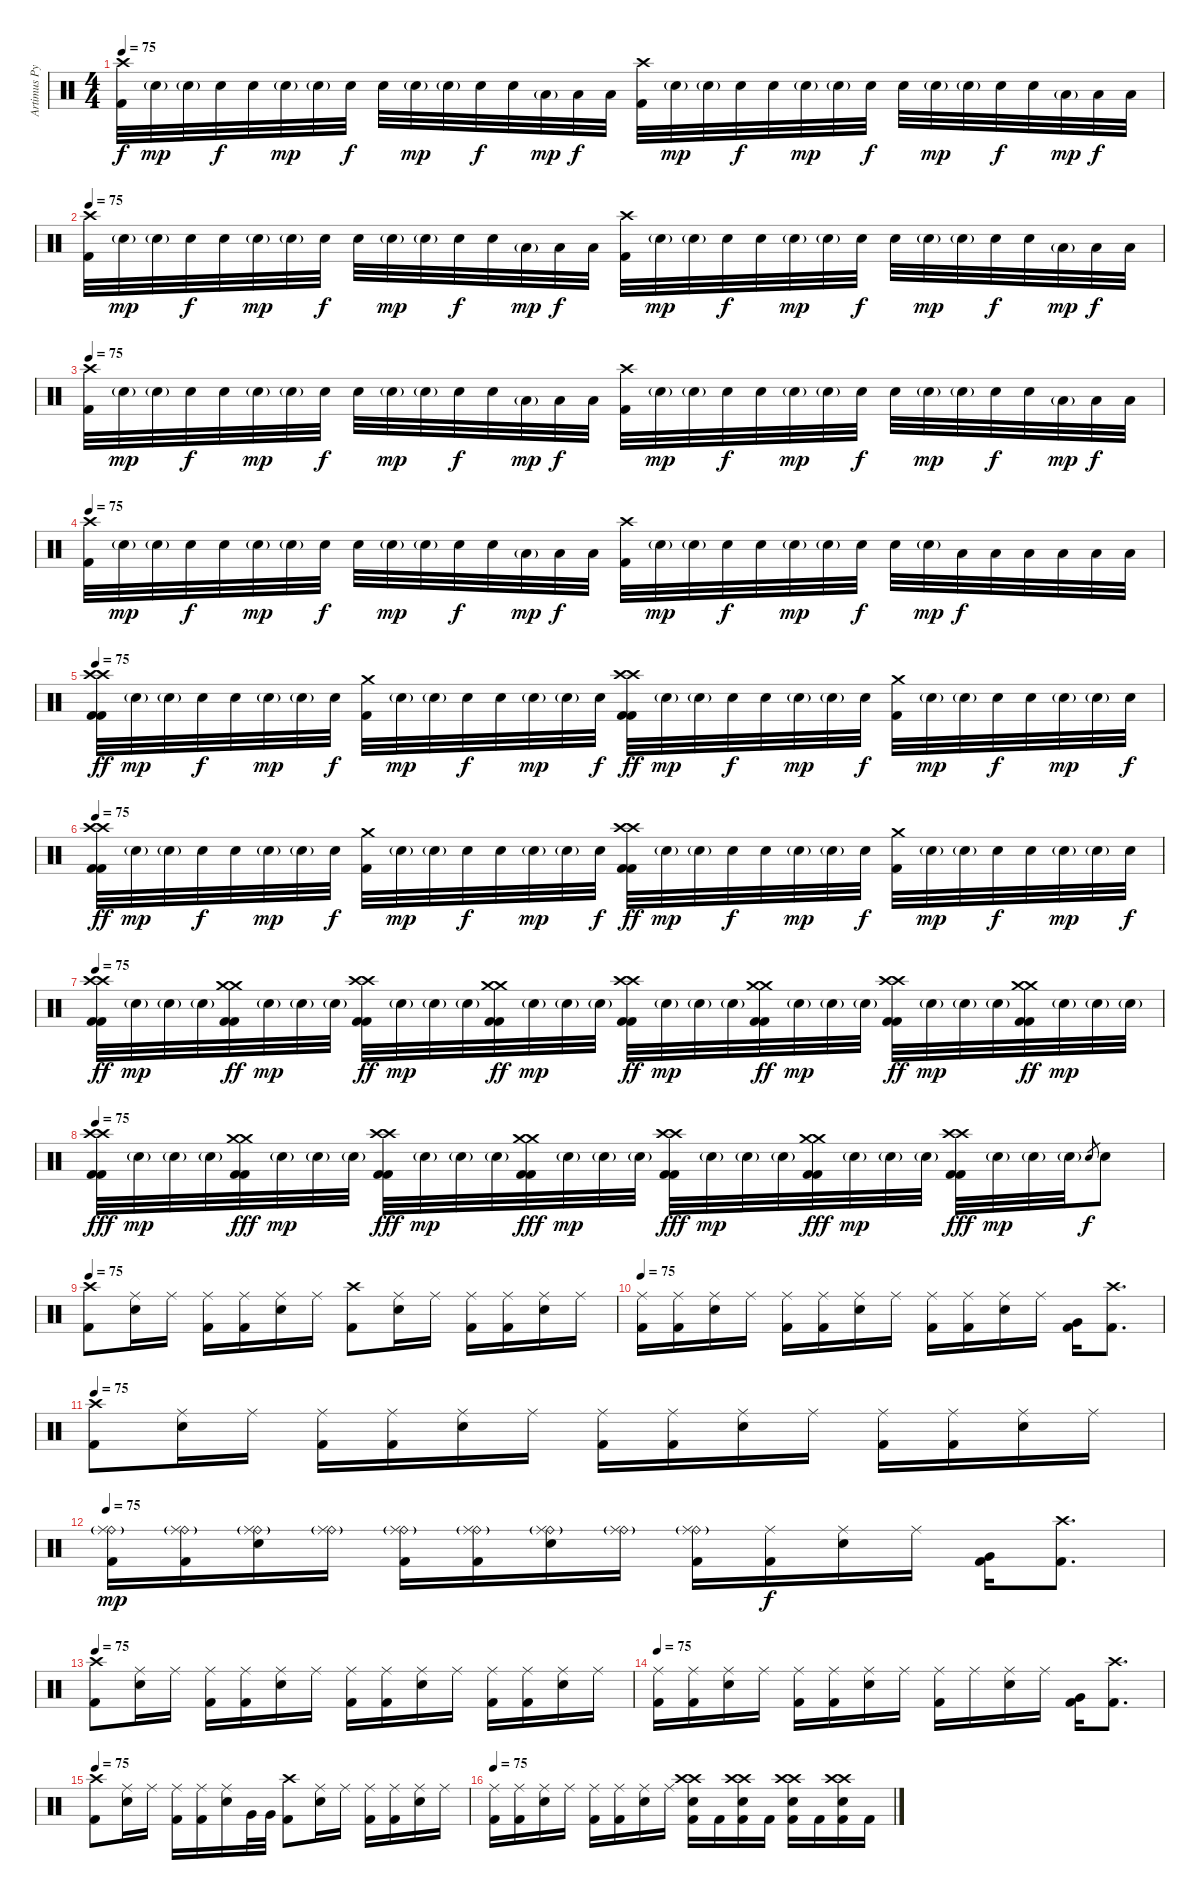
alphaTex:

\track ("Artimus Pyle (drums)" "Artimus Py") {instrument percussion}
\staff {score}
\articulation defaults
\ts (4 4)
\tempo 75
\clef neutral
\ks c
("Crash high (hit)" "Kick (hit) 2").32{dy f} "Electric Snare (hit)"{g}.32{dy mp} "Electric Snare (hit)"{g}.32 "Electric Snare (hit)".32{dy f} "Electric Snare (hit)".32 "Electric Snare (hit)"{g}.32{dy mp} "Electric Snare (hit)"{g}.32 "Electric Snare (hit)".32{dy f} "Electric Snare (hit)".32 "Electric Snare (hit)"{g}.32{dy mp} "Electric Snare (hit)"{g}.32 "Electric Snare (hit)".32{dy f} "Electric Snare (hit)".32 "Low Tom (hit)"{g}.32{dy mp} "Low Tom (hit)".32{dy f} "Low Tom (hit)".32 ("Crash high (hit)" "Kick (hit) 2").32 "Electric Snare (hit)"{g}.32{dy mp} "Electric Snare (hit)"{g}.32 "Electric Snare (hit)".32{dy f} "Electric Snare (hit)".32 "Electric Snare (hit)"{g}.32{dy mp} "Electric Snare (hit)"{g}.32 "Electric Snare (hit)".32{dy f} "Electric Snare (hit)".32 "Electric Snare (hit)"{g}.32{dy mp} "Electric Snare (hit)"{g}.32 "Electric Snare (hit)".32{dy f} "Electric Snare (hit)".32 "Low Tom (hit)"{g}.32{dy mp} "Low Tom (hit)".32{dy f} "Low Tom (hit)".32 |
\tempo 75
("Crash high (hit)" "Kick (hit) 2").32 "Electric Snare (hit)"{g}.32{dy mp} "Electric Snare (hit)"{g}.32 "Electric Snare (hit)".32{dy f} "Electric Snare (hit)".32 "Electric Snare (hit)"{g}.32{dy mp} "Electric Snare (hit)"{g}.32 "Electric Snare (hit)".32{dy f} "Electric Snare (hit)".32 "Electric Snare (hit)"{g}.32{dy mp} "Electric Snare (hit)"{g}.32 "Electric Snare (hit)".32{dy f} "Electric Snare (hit)".32 "Low Tom (hit)"{g}.32{dy mp} "Low Tom (hit)".32{dy f} "Low Tom (hit)".32 ("Crash high (hit)" "Kick (hit) 2").32 "Electric Snare (hit)"{g}.32{dy mp} "Electric Snare (hit)"{g}.32 "Electric Snare (hit)".32{dy f} "Electric Snare (hit)".32 "Electric Snare (hit)"{g}.32{dy mp} "Electric Snare (hit)"{g}.32 "Electric Snare (hit)".32{dy f} "Electric Snare (hit)".32 "Electric Snare (hit)"{g}.32{dy mp} "Electric Snare (hit)"{g}.32 "Electric Snare (hit)".32{dy f} "Electric Snare (hit)".32 "Low Tom (hit)"{g}.32{dy mp} "Low Tom (hit)".32{dy f} "Low Tom (hit)".32 |
\tempo 75
("Crash high (hit)" "Kick (hit) 2").32 "Electric Snare (hit)"{g}.32{dy mp} "Electric Snare (hit)"{g}.32 "Electric Snare (hit)".32{dy f} "Electric Snare (hit)".32 "Electric Snare (hit)"{g}.32{dy mp} "Electric Snare (hit)"{g}.32 "Electric Snare (hit)".32{dy f} "Electric Snare (hit)".32 "Electric Snare (hit)"{g}.32{dy mp} "Electric Snare (hit)"{g}.32 "Electric Snare (hit)".32{dy f} "Electric Snare (hit)".32 "Low Tom (hit)"{g}.32{dy mp} "Low Tom (hit)".32{dy f} "Low Tom (hit)".32 ("Crash high (hit)" "Kick (hit) 2").32 "Electric Snare (hit)"{g}.32{dy mp} "Electric Snare (hit)"{g}.32 "Electric Snare (hit)".32{dy f} "Electric Snare (hit)".32 "Electric Snare (hit)"{g}.32{dy mp} "Electric Snare (hit)"{g}.32 "Electric Snare (hit)".32{dy f} "Electric Snare (hit)".32 "Electric Snare (hit)"{g}.32{dy mp} "Electric Snare (hit)"{g}.32 "Electric Snare (hit)".32{dy f} "Electric Snare (hit)".32 "Low Tom (hit)"{g}.32{dy mp} "Low Tom (hit)".32{dy f} "Low Tom (hit)".32 |
\tempo 75
("Crash high (hit)" "Kick (hit) 2").32 "Electric Snare (hit)"{g}.32{dy mp} "Electric Snare (hit)"{g}.32 "Electric Snare (hit)".32{dy f} "Electric Snare (hit)".32 "Electric Snare (hit)"{g}.32{dy mp} "Electric Snare (hit)"{g}.32 "Electric Snare (hit)".32{dy f} "Electric Snare (hit)".32 "Electric Snare (hit)"{g}.32{dy mp} "Electric Snare (hit)"{g}.32 "Electric Snare (hit)".32{dy f} "Electric Snare (hit)".32 "Low Tom (hit)"{g}.32{dy mp} "Low Tom (hit)".32{dy f} "Low Tom (hit)".32 ("Crash high (hit)" "Kick (hit) 2").32 "Electric Snare (hit)"{g}.32{dy mp} "Electric Snare (hit)"{g}.32 "Electric Snare (hit)".32{dy f} "Electric Snare (hit)".32 "Electric Snare (hit)"{g}.32{dy mp} "Electric Snare (hit)"{g}.32 "Electric Snare (hit)".32{dy f} "Electric Snare (hit)".32 "Electric Snare (hit)"{g}.32{dy mp} "Low Tom (hit)".32{dy f} "Low Tom (hit)".32 "Low Tom (hit)".32 "Low Tom (hit)".32 "Low Tom (hit)".32 "Low Tom (hit)".32 |
\tempo 75
("Crash high (hit)" "Crash high (hit)" "Kick (hit) 2" "Kick (hit) 2").32{dy ff} "Electric Snare (hit)"{g}.32{dy mp} "Electric Snare (hit)"{g}.32 "Electric Snare (hit)".32{dy f} "Electric Snare (hit)".32 "Electric Snare (hit)"{g}.32{dy mp} "Electric Snare (hit)"{g}.32 "Electric Snare (hit)".32{dy f} ("Crash medium (hit)" "Kick (hit) 2").32 "Electric Snare (hit)"{g}.32{dy mp} "Electric Snare (hit)"{g}.32 "Electric Snare (hit)".32{dy f} "Electric Snare (hit)".32 "Electric Snare (hit)"{g}.32{dy mp} "Electric Snare (hit)"{g}.32 "Electric Snare (hit)".32{dy f} ("Crash high (hit)" "Crash high (hit)" "Kick (hit) 2" "Kick (hit) 2").32{dy ff} "Electric Snare (hit)"{g}.32{dy mp} "Electric Snare (hit)"{g}.32 "Electric Snare (hit)".32{dy f} "Electric Snare (hit)".32 "Electric Snare (hit)"{g}.32{dy mp} "Electric Snare (hit)"{g}.32 "Electric Snare (hit)".32{dy f} ("Crash medium (hit)" "Kick (hit) 2").32 "Electric Snare (hit)"{g}.32{dy mp} "Electric Snare (hit)"{g}.32 "Electric Snare (hit)".32{dy f} "Electric Snare (hit)".32 "Electric Snare (hit)"{g}.32{dy mp} "Electric Snare (hit)"{g}.32 "Electric Snare (hit)".32{dy f} |
\tempo 75
("Crash high (hit)" "Crash high (hit)" "Kick (hit) 2" "Kick (hit) 2").32{dy ff} "Electric Snare (hit)"{g}.32{dy mp} "Electric Snare (hit)"{g}.32 "Electric Snare (hit)".32{dy f} "Electric Snare (hit)".32 "Electric Snare (hit)"{g}.32{dy mp} "Electric Snare (hit)"{g}.32 "Electric Snare (hit)".32{dy f} ("Crash medium (hit)" "Kick (hit) 2").32 "Electric Snare (hit)"{g}.32{dy mp} "Electric Snare (hit)"{g}.32 "Electric Snare (hit)".32{dy f} "Electric Snare (hit)".32 "Electric Snare (hit)"{g}.32{dy mp} "Electric Snare (hit)"{g}.32 "Electric Snare (hit)".32{dy f} ("Crash high (hit)" "Crash high (hit)" "Kick (hit) 2" "Kick (hit) 2").32{dy ff} "Electric Snare (hit)"{g}.32{dy mp} "Electric Snare (hit)"{g}.32 "Electric Snare (hit)".32{dy f} "Electric Snare (hit)".32 "Electric Snare (hit)"{g}.32{dy mp} "Electric Snare (hit)"{g}.32 "Electric Snare (hit)".32{dy f} ("Crash medium (hit)" "Kick (hit) 2").32 "Electric Snare (hit)"{g}.32{dy mp} "Electric Snare (hit)"{g}.32 "Electric Snare (hit)".32{dy f} "Electric Snare (hit)".32 "Electric Snare (hit)"{g}.32{dy mp} "Electric Snare (hit)"{g}.32 "Electric Snare (hit)".32{dy f} |
\tempo 75
("Crash high (hit)" "Crash high (hit)" "Kick (hit) 2" "Kick (hit) 2").32{dy ff} "Electric Snare (hit)"{g}.32{dy mp} "Electric Snare (hit)"{g}.32 "Electric Snare (hit)"{g}.32 ("Crash medium (hit)" "Crash medium (hit)" "Kick (hit) 2" "Kick (hit) 2").32{dy ff} "Electric Snare (hit)"{g}.32{dy mp} "Electric Snare (hit)"{g}.32 "Electric Snare (hit)"{g}.32 ("Crash high (hit)" "Crash high (hit)" "Kick (hit) 2" "Kick (hit) 2").32{dy ff} "Electric Snare (hit)"{g}.32{dy mp} "Electric Snare (hit)"{g}.32 "Electric Snare (hit)"{g}.32 ("Crash medium (hit)" "Crash medium (hit)" "Kick (hit) 2" "Kick (hit) 2").32{dy ff} "Electric Snare (hit)"{g}.32{dy mp} "Electric Snare (hit)"{g}.32 "Electric Snare (hit)"{g}.32 ("Crash high (hit)" "Crash high (hit)" "Kick (hit) 2" "Kick (hit) 2").32{dy ff} "Electric Snare (hit)"{g}.32{dy mp} "Electric Snare (hit)"{g}.32 "Electric Snare (hit)"{g}.32 ("Crash medium (hit)" "Crash medium (hit)" "Kick (hit) 2" "Kick (hit) 2").32{dy ff} "Electric Snare (hit)"{g}.32{dy mp} "Electric Snare (hit)"{g}.32 "Electric Snare (hit)"{g}.32 ("Crash high (hit)" "Crash high (hit)" "Kick (hit) 2" "Kick (hit) 2").32{dy ff} "Electric Snare (hit)"{g}.32{dy mp} "Electric Snare (hit)"{g}.32 "Electric Snare (hit)"{g}.32 ("Crash medium (hit)" "Crash medium (hit)" "Kick (hit) 2" "Kick (hit) 2").32{dy ff} "Electric Snare (hit)"{g}.32{dy mp} "Electric Snare (hit)"{g}.32 "Electric Snare (hit)"{g}.32 |
\tempo 75
("Crash high (hit)" "Crash high (hit)" "Kick (hit) 2" "Kick (hit) 2").32{dy fff} "Electric Snare (hit)"{g}.32{dy mp} "Electric Snare (hit)"{g}.32 "Electric Snare (hit)"{g}.32 ("Crash medium (hit)" "Crash medium (hit)" "Kick (hit) 2" "Kick (hit) 2").32{dy fff} "Electric Snare (hit)"{g}.32{dy mp} "Electric Snare (hit)"{g}.32 "Electric Snare (hit)"{g}.32 ("Crash high (hit)" "Crash high (hit)" "Kick (hit) 2" "Kick (hit) 2").32{dy fff} "Electric Snare (hit)"{g}.32{dy mp} "Electric Snare (hit)"{g}.32 "Electric Snare (hit)"{g}.32 ("Crash medium (hit)" "Crash medium (hit)" "Kick (hit) 2" "Kick (hit) 2").32{dy fff} "Electric Snare (hit)"{g}.32{dy mp} "Electric Snare (hit)"{g}.32 "Electric Snare (hit)"{g}.32 ("Crash high (hit)" "Crash high (hit)" "Kick (hit) 2" "Kick (hit) 2").32{dy fff} "Electric Snare (hit)"{g}.32{dy mp} "Electric Snare (hit)"{g}.32 "Electric Snare (hit)"{g}.32 ("Crash medium (hit)" "Crash medium (hit)" "Kick (hit) 2" "Kick (hit) 2").32{dy fff} "Electric Snare (hit)"{g}.32{dy mp} "Electric Snare (hit)"{g}.32 "Electric Snare (hit)"{g}.32 ("Crash high (hit)" "Crash high (hit)" "Kick (hit) 2" "Kick (hit) 2").32{dy fff} "Electric Snare (hit)"{g}.32{dy mp} "Electric Snare (hit)"{g}.32 "Electric Snare (hit)"{g}.32 "Electric Snare (hit)".8{gr dy f} "Electric Snare (hit)".8 |
\tempo 75
("Crash high (hit)" "Kick (hit) 2").8 ("Ride (middle)" "Electric Snare (hit)").16 "Ride (middle)".16 ("Ride (middle)" "Kick (hit) 2").16 ("Ride (middle)" "Kick (hit) 2").16 ("Ride (middle)" "Electric Snare (hit)").16 "Ride (middle)".16 ("Crash high (hit)" "Kick (hit) 2").8 ("Ride (middle)" "Electric Snare (hit)").16 "Ride (middle)".16 ("Ride (middle)" "Kick (hit) 2").16 ("Ride (middle)" "Kick (hit) 2").16 ("Ride (middle)" "Electric Snare (hit)").16 "Ride (middle)".16 |
\tempo 75
("Ride (middle)" "Kick (hit) 2").16 ("Ride (middle)" "Kick (hit) 2").16 ("Ride (middle)" "Electric Snare (hit)").16 "Ride (middle)".16 ("Ride (middle)" "Kick (hit) 2").16 ("Ride (middle)" "Kick (hit) 2").16 ("Ride (middle)" "Electric Snare (hit)").16 "Ride (middle)".16 ("Ride (middle)" "Kick (hit) 2").16 ("Ride (middle)" "Kick (hit) 2").16 ("Ride (middle)" "Electric Snare (hit)").16 "Ride (middle)".16 ("Very Low Tom (hit)" "Kick (hit) 2").16 ("Crash high (hit)" "Kick (hit) 2").8{d} |
\tempo 75
("Crash high (hit)" "Kick (hit) 2").8 ("Ride (middle)" "Electric Snare (hit)").16 "Ride (middle)".16 ("Ride (middle)" "Kick (hit) 2").16 ("Ride (middle)" "Kick (hit) 2").16 ("Ride (middle)" "Electric Snare (hit)").16 "Ride (middle)".16 ("Ride (middle)" "Kick (hit) 2").16 ("Ride (middle)" "Kick (hit) 2").16 ("Ride (middle)" "Electric Snare (hit)").16 "Ride (middle)".16 ("Ride (middle)" "Kick (hit) 2").16 ("Ride (middle)" "Kick (hit) 2").16 ("Ride (middle)" "Electric Snare (hit)").16 "Ride (middle)".16 |
\tempo 75
("Ride (bell)" "Ride (middle)"{g} "Kick (hit) 2").16{dy mp} ("Ride (bell)" "Ride (middle)"{g} "Kick (hit) 2").16 ("Ride (bell)" "Ride (middle)"{g} "Electric Snare (hit)").16 ("Ride (bell)" "Ride (middle)"{g}).16 ("Ride (bell)" "Ride (middle)"{g} "Kick (hit) 2").16 ("Ride (bell)" "Ride (middle)"{g} "Kick (hit) 2").16 ("Ride (bell)" "Ride (middle)"{g} "Electric Snare (hit)").16 ("Ride (bell)" "Ride (middle)"{g}).16 ("Ride (bell)" "Ride (middle)"{g} "Kick (hit) 2").16 ("Ride (middle)" "Kick (hit) 2").16{dy f} ("Ride (middle)" "Electric Snare (hit)").16 "Ride (middle)".16 ("Very Low Tom (hit)" "Kick (hit) 2").16 ("Crash high (hit)" "Kick (hit) 2").8{d} |
\tempo 75
("Crash high (hit)" "Kick (hit) 2").8 ("Ride (middle)" "Electric Snare (hit)").16 "Ride (middle)".16 ("Ride (middle)" "Kick (hit) 2").16 ("Ride (middle)" "Kick (hit) 2").16 ("Ride (middle)" "Electric Snare (hit)").16 "Ride (middle)".16 ("Ride (middle)" "Kick (hit) 2").16 ("Ride (middle)" "Kick (hit) 2").16 ("Ride (middle)" "Electric Snare (hit)").16 "Ride (middle)".16 ("Ride (middle)" "Kick (hit) 2").16 ("Ride (middle)" "Kick (hit) 2").16 ("Ride (middle)" "Electric Snare (hit)").16 "Ride (middle)".16 |
\tempo 75
("Ride (middle)" "Kick (hit) 2").16 ("Ride (middle)" "Kick (hit) 2").16 ("Ride (middle)" "Electric Snare (hit)").16 "Ride (middle)".16 ("Ride (middle)" "Kick (hit) 2").16 ("Ride (middle)" "Kick (hit) 2").16 ("Ride (middle)" "Electric Snare (hit)").16 "Ride (middle)".16 ("Ride (middle)" "Kick (hit) 2").16 "Ride (middle)".16 ("Ride (middle)" "Electric Snare (hit)").16 "Ride (middle)".16 ("Very Low Tom (hit)" "Kick (hit) 2").16 ("Crash high (hit)" "Kick (hit) 2").8{d} |
\tempo 75
("Crash high (hit)" "Kick (hit) 2").8 ("Ride (middle)" "Electric Snare (hit)").16 "Ride (middle)".16 ("Ride (middle)" "Kick (hit) 2").16 ("Ride (middle)" "Kick (hit) 2").16 ("Ride (middle)" "Electric Snare (hit)").16 "Very Low Tom (hit)".32 "Very Low Tom (hit)".32 ("Crash high (hit)" "Kick (hit) 2").8 ("Ride (middle)" "Electric Snare (hit)").16 "Ride (middle)".16 ("Ride (middle)" "Kick (hit) 2").16 ("Ride (middle)" "Kick (hit) 2").16 ("Ride (middle)" "Electric Snare (hit)").16 "Ride (middle)".16 |
\tempo 75
("Ride (middle)" "Kick (hit) 2").16 ("Ride (middle)" "Kick (hit) 2").16 ("Ride (middle)" "Electric Snare (hit)").16 "Ride (middle)".16 ("Ride (middle)" "Kick (hit) 2").16 ("Ride (middle)" "Kick (hit) 2").16 ("Ride (middle)" "Electric Snare (hit)").16 "Ride (middle)".16 ("Crash high (hit)" "Crash high (hit)" "Electric Snare (hit)" "Kick (hit) 2").16 "Kick (hit) 2".16 ("Crash high (hit)" "Crash high (hit)" "Electric Snare (hit)" "Kick (hit) 2").16 "Kick (hit) 2".16 ("Crash high (hit)" "Crash high (hit)" "Electric Snare (hit)" "Kick (hit) 2").16 "Kick (hit) 2".16 ("Crash high (hit)" "Crash high (hit)" "Electric Snare (hit)" "Kick (hit) 2").16 "Kick (hit) 2".16
